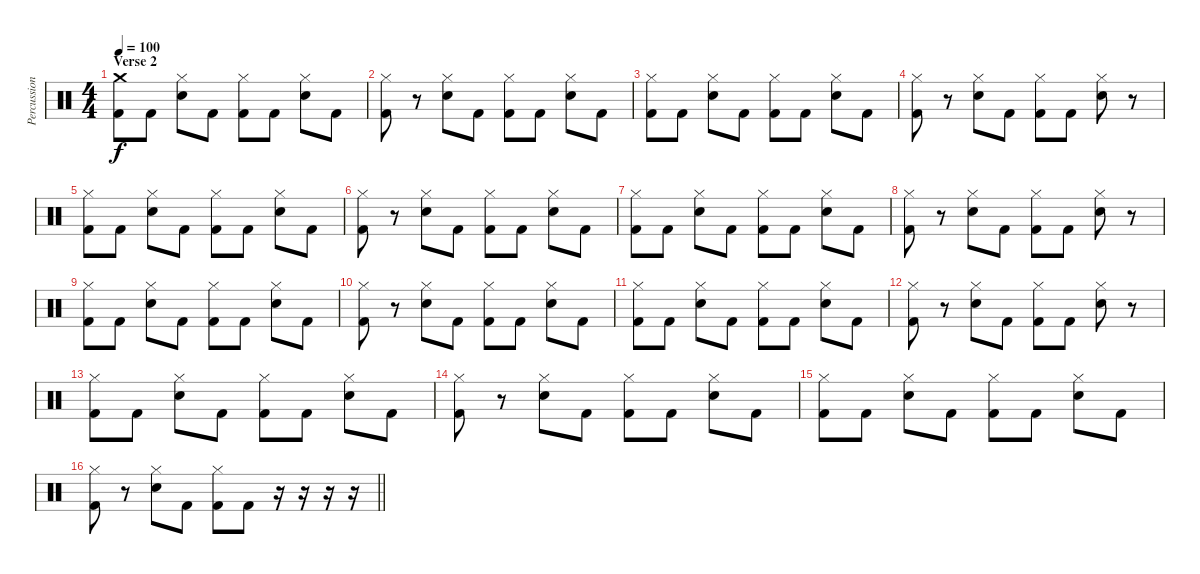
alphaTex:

\track ("Percussion" "Percussion") {instrument percussion}
\staff {score}
\articulation defaults
\ts (4 4)
\section ("" "Verse 2")
\tempo 100
\clef neutral
\ks c
("Crash medium (hit)" "Kick (hit) 2").8{dy f} "Kick (hit) 2".8 ("Hi-Hat (closed)" "Snare (hit) 2").8 "Kick (hit) 2".8 ("Hi-Hat (closed)" "Kick (hit) 2").8 "Kick (hit) 2".8 ("Hi-Hat (closed)" "Snare (hit) 2").8 "Kick (hit) 2".8 |
("Hi-Hat (closed)" "Kick (hit) 2").8 r.8 ("Hi-Hat (closed)" "Snare (hit) 2").8 "Kick (hit) 2".8 ("Hi-Hat (closed)" "Kick (hit) 2").8 "Kick (hit) 2".8 ("Hi-Hat (closed)" "Snare (hit) 2").8 "Kick (hit) 2".8 |
("Hi-Hat (closed)" "Kick (hit) 2").8 "Kick (hit) 2".8 ("Hi-Hat (closed)" "Snare (hit) 2").8 "Kick (hit) 2".8 ("Hi-Hat (closed)" "Kick (hit) 2").8 "Kick (hit) 2".8 ("Hi-Hat (closed)" "Snare (hit) 2").8 "Kick (hit) 2".8 |
("Hi-Hat (closed)" "Kick (hit) 2").8 r.8 ("Hi-Hat (closed)" "Snare (hit) 2").8 "Kick (hit) 2".8 ("Hi-Hat (closed)" "Kick (hit) 2").8 "Kick (hit) 2".8 ("Hi-Hat (closed)" "Snare (hit) 2").8 r.8 |
("Hi-Hat (closed)" "Kick (hit) 2").8 "Kick (hit) 2".8 ("Hi-Hat (closed)" "Snare (hit) 2").8 "Kick (hit) 2".8 ("Hi-Hat (closed)" "Kick (hit) 2").8 "Kick (hit) 2".8 ("Hi-Hat (closed)" "Snare (hit) 2").8 "Kick (hit) 2".8 |
("Hi-Hat (closed)" "Kick (hit) 2").8 r.8 ("Hi-Hat (closed)" "Snare (hit) 2").8 "Kick (hit) 2".8 ("Hi-Hat (closed)" "Kick (hit) 2").8 "Kick (hit) 2".8 ("Hi-Hat (closed)" "Snare (hit) 2").8 "Kick (hit) 2".8 |
("Hi-Hat (closed)" "Kick (hit) 2").8 "Kick (hit) 2".8 ("Hi-Hat (closed)" "Snare (hit) 2").8 "Kick (hit) 2".8 ("Hi-Hat (closed)" "Kick (hit) 2").8 "Kick (hit) 2".8 ("Hi-Hat (closed)" "Snare (hit) 2").8 "Kick (hit) 2".8 |
("Hi-Hat (closed)" "Kick (hit) 2").8 r.8 ("Hi-Hat (closed)" "Snare (hit) 2").8 "Kick (hit) 2".8 ("Hi-Hat (closed)" "Kick (hit) 2").8 "Kick (hit) 2".8 ("Hi-Hat (closed)" "Snare (hit) 2").8 r.8 |
("Hi-Hat (closed)" "Kick (hit) 2").8 "Kick (hit) 2".8 ("Hi-Hat (closed)" "Snare (hit) 2").8 "Kick (hit) 2".8 ("Hi-Hat (closed)" "Kick (hit) 2").8 "Kick (hit) 2".8 ("Hi-Hat (closed)" "Snare (hit) 2").8 "Kick (hit) 2".8 |
("Hi-Hat (closed)" "Kick (hit) 2").8 r.8 ("Hi-Hat (closed)" "Snare (hit) 2").8 "Kick (hit) 2".8 ("Hi-Hat (closed)" "Kick (hit) 2").8 "Kick (hit) 2".8 ("Hi-Hat (closed)" "Snare (hit) 2").8 "Kick (hit) 2".8 |
("Hi-Hat (closed)" "Kick (hit) 2").8 "Kick (hit) 2".8 ("Hi-Hat (closed)" "Snare (hit) 2").8 "Kick (hit) 2".8 ("Hi-Hat (closed)" "Kick (hit) 2").8 "Kick (hit) 2".8 ("Hi-Hat (closed)" "Snare (hit) 2").8 "Kick (hit) 2".8 |
("Hi-Hat (closed)" "Kick (hit) 2").8 r.8 ("Hi-Hat (closed)" "Snare (hit) 2").8 "Kick (hit) 2".8 ("Hi-Hat (closed)" "Kick (hit) 2").8 "Kick (hit) 2".8 ("Hi-Hat (closed)" "Snare (hit) 2").8 r.8 |
("Hi-Hat (closed)" "Kick (hit) 2").8 "Kick (hit) 2".8 ("Hi-Hat (closed)" "Snare (hit) 2").8 "Kick (hit) 2".8 ("Hi-Hat (closed)" "Kick (hit) 2").8 "Kick (hit) 2".8 ("Hi-Hat (closed)" "Snare (hit) 2").8 "Kick (hit) 2".8 |
("Hi-Hat (closed)" "Kick (hit) 2").8 r.8 ("Hi-Hat (closed)" "Snare (hit) 2").8 "Kick (hit) 2".8 ("Hi-Hat (closed)" "Kick (hit) 2").8 "Kick (hit) 2".8 ("Hi-Hat (closed)" "Snare (hit) 2").8 "Kick (hit) 2".8 |
("Hi-Hat (closed)" "Kick (hit) 2").8 "Kick (hit) 2".8 ("Hi-Hat (closed)" "Snare (hit) 2").8 "Kick (hit) 2".8 ("Hi-Hat (closed)" "Kick (hit) 2").8 "Kick (hit) 2".8 ("Hi-Hat (closed)" "Snare (hit) 2").8 "Kick (hit) 2".8 |
\barLineRight lightlight
("Hi-Hat (closed)" "Kick (hit) 2").8 r.8 ("Hi-Hat (closed)" "Snare (hit) 2").8 "Kick (hit) 2".8 ("Hi-Hat (closed)" "Kick (hit) 2").8 "Kick (hit) 2".8 r.16 r.16 r.16 r.16
